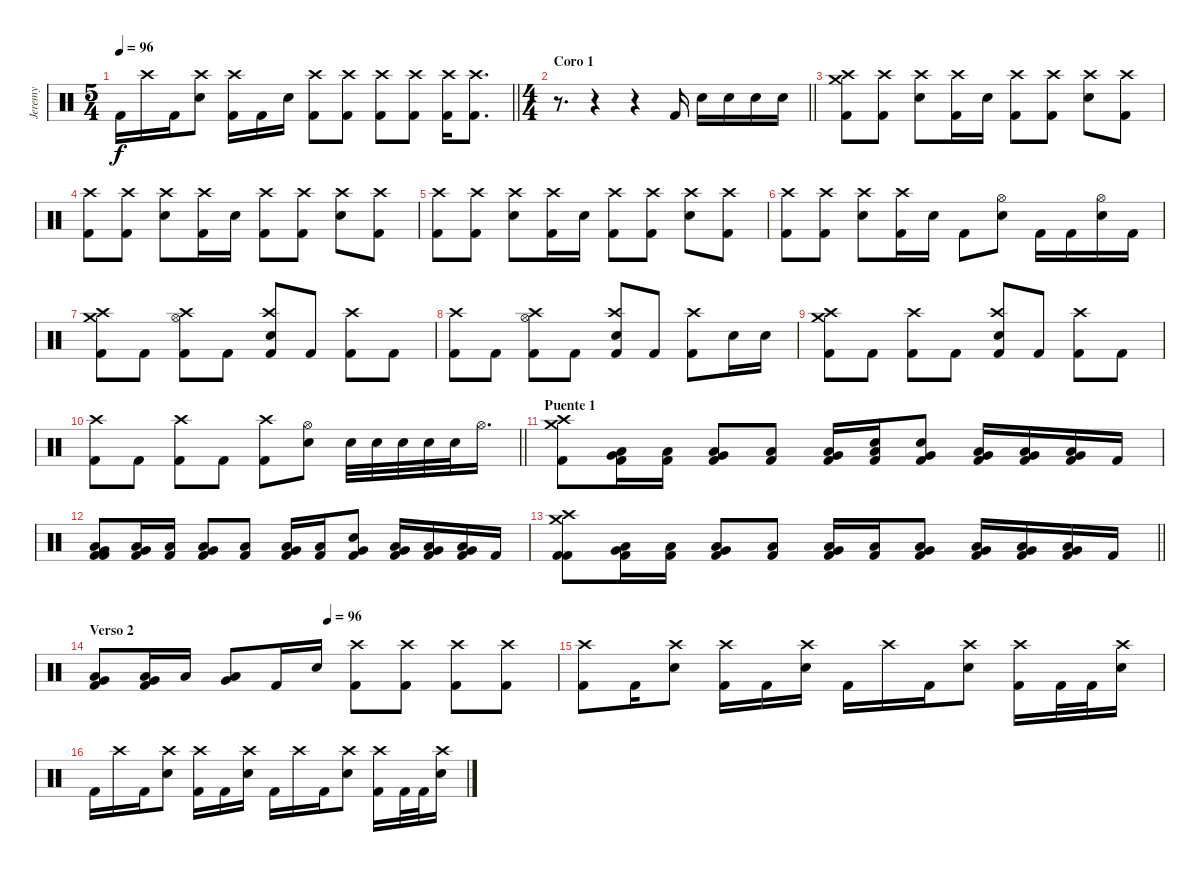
\track ("Jeremy" "Jeremy") {instrument percussion}
\staff {score}
\articulation defaults
\ts (5 4)
\tempo 96
\clef neutral
\barLineRight lightlight
\ks c "Kick (hit) 2".16{dy f} "Crash high (hit)".16 "Kick (hit) 2".16
("Crash high (hit)" "Snare (hit) 2").8 ("Crash high (hit)" "Kick (hit) 2").16 "Kick (hit) 2".16 "Snare (hit) 2".16 ("Crash high (hit)" "Kick (hit) 2").8 ("Crash high (hit)" "Kick (hit) 2").8 ("Crash high (hit)" "Kick (hit) 2").8 ("Crash high (hit)" "Kick (hit) 2").8 ("Crash high (hit)" "Kick (hit) 2").16 ("Crash high (hit)" "Kick (hit) 2").8{d} |
\ts (4 4)
\section ("" "Coro 1")
\barLineRight lightlight
r.8{d} r.4 r.4 "Kick (hit) 2".16 "Snare (hit) 2".16 "Snare (hit) 2".16 "Snare (hit) 2".16 "Snare (hit) 2".16 |
("Crash medium (hit)" "Crash high (hit)" "Kick (hit) 2").8 ("Crash high (hit)" "Kick (hit) 2").8 ("Crash high (hit)" "Snare (hit) 2").8 ("Crash high (hit)" "Kick (hit) 2").16 "Snare (hit) 2".16 ("Crash high (hit)" "Kick (hit) 2").8 ("Crash high (hit)" "Kick (hit) 2").8 ("Crash high (hit)" "Snare (hit) 2").8 ("Crash high (hit)" "Kick (hit) 2").8 |
("Crash high (hit)" "Kick (hit) 2").8 ("Crash high (hit)" "Kick (hit) 2").8 ("Crash high (hit)" "Snare (hit) 2").8 ("Crash high (hit)" "Kick (hit) 2").16 "Snare (hit) 2".16 ("Crash high (hit)" "Kick (hit) 2").8 ("Crash high (hit)" "Kick (hit) 2").8 ("Crash high (hit)" "Snare (hit) 2").8 ("Crash high (hit)" "Kick (hit) 2").8 |
("Crash high (hit)" "Kick (hit) 2").8 ("Crash high (hit)" "Kick (hit) 2").8 ("Crash high (hit)" "Snare (hit) 2").8 ("Crash high (hit)" "Kick (hit) 2").16 "Snare (hit) 2".16 ("Crash high (hit)" "Kick (hit) 2").8 ("Crash high (hit)" "Kick (hit) 2").8 ("Crash high (hit)" "Snare (hit) 2").8 ("Crash high (hit)" "Kick (hit) 2").8 |
("Crash high (hit)" "Kick (hit) 2").8 ("Crash high (hit)" "Kick (hit) 2").8 ("Crash high (hit)" "Snare (hit) 2").8 ("Crash high (hit)" "Kick (hit) 2").16 "Snare (hit) 2".16 "Kick (hit) 2".8 ("Hi-Hat (open)" "Snare (hit) 2").8 "Kick (hit) 2".16 "Kick (hit) 2".16 ("Hi-Hat (open)" "Snare (hit) 2").16 "Kick (hit) 2".16 |
("Crash medium (hit)" "Crash high (hit)" "Kick (hit) 2").8 "Kick (hit) 2".8 ("Crash high (hit)" "Hi-Hat (open)" "Kick (hit) 2").8 "Kick (hit) 2".8 ("Crash high (hit)" "Snare (hit) 2" "Kick (hit) 2").8 "Kick (hit) 2".8 ("Crash high (hit)" "Kick (hit) 2").8 "Kick (hit) 2".8 |
("Crash high (hit)" "Kick (hit) 2").8 "Kick (hit) 2".8 ("Crash high (hit)" "Hi-Hat (open)" "Kick (hit) 2").8 "Kick (hit) 2".8 ("Crash high (hit)" "Snare (hit) 2" "Kick (hit) 2").8 "Kick (hit) 2".8 ("Crash high (hit)" "Kick (hit) 2").8 "Snare (hit) 2".16 "Snare (hit) 2".16 |
("Crash medium (hit)" "Crash high (hit)" "Kick (hit) 2").8 "Kick (hit) 2".8 ("Crash high (hit)" "Kick (hit) 2").8 "Kick (hit) 2".8 ("Crash high (hit)" "Snare (hit) 2" "Kick (hit) 2").8 "Kick (hit) 2".8 ("Crash high (hit)" "Kick (hit) 2").8 "Kick (hit) 2".8 |
\barLineRight lightlight
("Crash high (hit)" "Kick (hit) 2").8 "Kick (hit) 2".8 ("Crash high (hit)" "Kick (hit) 2").8 "Kick (hit) 2".8 ("Crash high (hit)" "Kick (hit) 2").8 ("Hi-Hat (open)" "Snare (hit) 2").8 "Snare (hit) 2".32 "Snare (hit) 2".32 "Snare (hit) 2".32 "Snare (hit) 2".32 "Snare (hit) 2".32 "Hi-Hat (open)".16{d} |
\section ("" "Puente 1")
("Crash medium (hit)" "Crash high (hit)" "Kick (hit) 2").8 ("Very Low Tom (hit)" "Low Floor Tom (hit)" "Kick (hit) 2").16 ("Low Tom (hit)" "Kick (hit) 2").16 ("Very Low Tom (hit)" "Low Floor Tom (hit)" "Kick (hit) 2").8 ("Low Tom (hit)" "Kick (hit) 2").8 ("Very Low Tom (hit)" "Low Floor Tom (hit)" "Kick (hit) 2").16 ("Low Tom (hit)" "Snare (hit)" "Kick (hit) 2").16 ("Very Low Tom (hit)" "Snare (hit)" "Kick (hit) 2").8 ("Very Low Tom (hit)" "Low Floor Tom (hit)" "Kick (hit) 2").16 ("Very Low Tom (hit)" "Low Floor Tom (hit)" "Kick (hit) 2").16 ("Very Low Tom (hit)" "Low Floor Tom (hit)" "Kick (hit) 2").16 "Kick (hit) 2".16 |
("Low Floor Tom (hit)" "Very Low Tom (hit)" "Kick (hit) 2" "Kick (hit) 2").8 ("Very Low Tom (hit)" "Low Floor Tom (hit)" "Kick (hit) 2").16 ("Low Tom (hit)" "Kick (hit) 2").16 ("Very Low Tom (hit)" "Low Floor Tom (hit)" "Kick (hit) 2").8 ("Low Tom (hit)" "Kick (hit) 2").8 ("Very Low Tom (hit)" "Low Floor Tom (hit)" "Kick (hit) 2").16 ("Low Tom (hit)" "Kick (hit) 2").16 ("Very Low Tom (hit)" "Snare (hit)" "Kick (hit) 2").8 ("Very Low Tom (hit)" "Low Floor Tom (hit)" "Kick (hit) 2").16 ("Very Low Tom (hit)" "Low Floor Tom (hit)" "Kick (hit) 2").16 ("Very Low Tom (hit)" "Low Floor Tom (hit)" "Kick (hit) 2").16 "Kick (hit) 2".16 |
\barLineRight lightlight
("Crash medium (hit)" "Crash high (hit)" "Kick (hit) 2" "Kick (hit) 2").8 ("Very Low Tom (hit)" "Low Floor Tom (hit)" "Kick (hit) 2").16 ("Low Tom (hit)" "Kick (hit) 2").16 ("Very Low Tom (hit)" "Low Floor Tom (hit)" "Kick (hit) 2").8 ("Low Tom (hit)" "Kick (hit) 2").8 ("Very Low Tom (hit)" "Low Floor Tom (hit)" "Kick (hit) 2").16 ("Low Tom (hit)" "Kick (hit) 2").16 ("Very Low Tom (hit)" "Low Floor Tom (hit)" "Kick (hit) 2").8 ("Very Low Tom (hit)" "Low Floor Tom (hit)" "Kick (hit) 2").16 ("Very Low Tom (hit)" "Low Floor Tom (hit)" "Kick (hit) 2").16 ("Very Low Tom (hit)" "Low Floor Tom (hit)" "Kick (hit) 2").16 "Kick (hit) 2".16 |
\section ("" "Verso 2")
\tempo (96 0.5)
("Very Low Tom (hit)" "Low Floor Tom (hit)" "Kick (hit) 2").8 ("Very Low Tom (hit)" "Low Floor Tom (hit)" "Kick (hit) 2").16 "Low Tom (hit)".16 ("Very Low Tom (hit)" "Low Floor Tom (hit)").8 "Kick (hit) 2".16 "Snare (hit) 2".16 ("Crash high (hit)" "Kick (hit) 2").8 ("Crash high (hit)" "Kick (hit) 2").8 ("Crash high (hit)" "Kick (hit) 2").8 ("Crash high (hit)" "Kick (hit) 2").8 |
("Crash high (hit)" "Kick (hit) 2").8 "Kick (hit) 2".16 ("Crash high (hit)" "Snare (hit) 2").8 ("Crash high (hit)" "Kick (hit) 2").16 "Kick (hit) 2".16 ("Crash high (hit)" "Snare (hit) 2").16 "Kick (hit) 2".16 "Crash high (hit)".16 "Kick (hit) 2".16 ("Crash high (hit)" "Snare (hit) 2").8 ("Crash high (hit)" "Kick (hit) 2").16 "Kick (hit) 2".32 "Kick (hit) 2".32 ("Crash high (hit)" "Snare (hit) 2").16 |
"Kick (hit) 2".16 "Crash high (hit)".16 "Kick (hit) 2".16 ("Crash high (hit)" "Snare (hit) 2").8 ("Crash high (hit)" "Kick (hit) 2").16 "Kick (hit) 2".16 ("Crash high (hit)" "Snare (hit) 2").16 "Kick (hit) 2".16 "Crash high (hit)".16 "Kick (hit) 2".16 ("Crash high (hit)" "Snare (hit) 2").8 ("Crash high (hit)" "Kick (hit) 2").16 "Kick (hit) 2".32 "Kick (hit) 2".32 ("Crash high (hit)" "Snare (hit) 2").16
